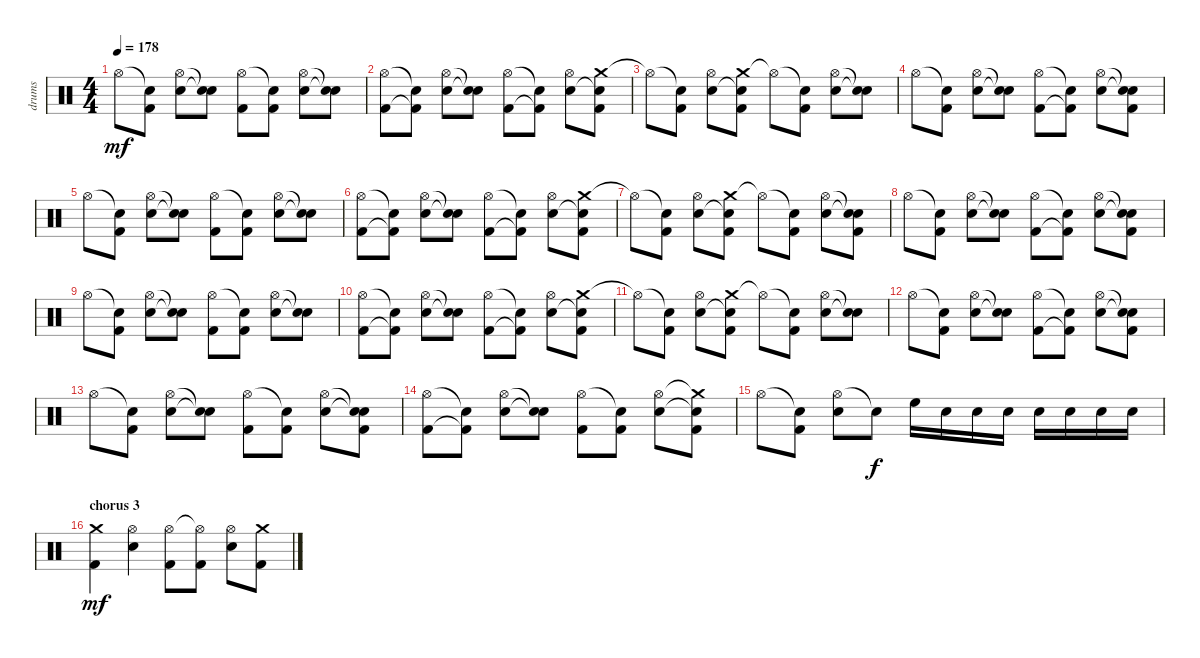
\track ("drums" "drums") {instrument percussion}
\staff {score}
\articulation defaults
\ts (4 4)
\tempo 178
\clef neutral
\ks aminor "Hi-Hat (open)".8{dy mf}
("Snare (hit)"{t} "Kick (hit) 2").8 ("Hi-Hat (open)" "Snare (hit) 2").8 ("Snare (hit)"{t} "Snare (hit)"{t}).8 ("Hi-Hat (open)" "Kick (hit) 2").8 ("Snare (hit)"{t} "Kick (hit) 2").8 ("Hi-Hat (open)" "Snare (hit) 2").8 ("Snare (hit)"{t} "Snare (hit)"{t}).8 |
("Hi-Hat (open)" "Kick (hit) 2").8 ("Snare (hit)"{t} "Kick (hit) 2"{t}).8 ("Hi-Hat (open)" "Snare (hit) 2").8 ("Snare (hit)"{t} "Snare (hit)"{t}).8 ("Hi-Hat (open)" "Kick (hit) 2").8 ("Snare (hit)"{t} "Kick (hit) 2"{t}).8 ("Hi-Hat (open)" "Snare (hit) 2").8 ("Crash medium (hit)" "Snare (hit)"{t} "Kick (hit) 2").8 |
"Hi-Hat (open)"{t}.8 ("Snare (hit)"{t} "Kick (hit) 2").8 ("Hi-Hat (open)" "Snare (hit) 2").8 ("Crash medium (hit)" "Snare (hit)"{t} "Kick (hit) 2").8 "Hi-Hat (open)"{t}.8 ("Snare (hit)"{t} "Kick (hit) 2").8 ("Hi-Hat (open)" "Snare (hit) 2").8 ("Snare (hit)"{t} "Snare (hit)"{t}).8 |
"Hi-Hat (open)".8 ("Snare (hit)"{t} "Kick (hit) 2").8 ("Hi-Hat (open)" "Snare (hit) 2").8 ("Snare (hit)"{t} "Snare (hit)"{t}).8 ("Hi-Hat (open)" "Kick (hit) 2").8 ("Snare (hit)"{t} "Kick (hit) 2"{t}).8 ("Hi-Hat (open)" "Snare (hit) 2").8 ("Snare (hit)"{t} "Snare (hit)"{t} "Kick (hit) 2").8 |
"Hi-Hat (open)".8 ("Snare (hit)"{t} "Kick (hit) 2").8 ("Hi-Hat (open)" "Snare (hit) 2").8 ("Snare (hit)"{t} "Snare (hit)"{t}).8 ("Hi-Hat (open)" "Kick (hit) 2").8 ("Snare (hit)"{t} "Kick (hit) 2").8 ("Hi-Hat (open)" "Snare (hit) 2").8 ("Snare (hit)"{t} "Snare (hit)"{t}).8 |
("Hi-Hat (open)" "Kick (hit) 2").8 ("Snare (hit)"{t} "Kick (hit) 2"{t}).8 ("Hi-Hat (open)" "Snare (hit) 2").8 ("Snare (hit)"{t} "Snare (hit)"{t}).8 ("Hi-Hat (open)" "Kick (hit) 2").8 ("Snare (hit)"{t} "Kick (hit) 2"{t}).8 ("Hi-Hat (open)" "Snare (hit) 2").8 ("Crash medium (hit)" "Snare (hit)"{t} "Kick (hit) 2").8 |
"Hi-Hat (open)"{t}.8 ("Snare (hit)"{t} "Kick (hit) 2").8 ("Hi-Hat (open)" "Snare (hit) 2").8 ("Crash medium (hit)" "Snare (hit)"{t} "Kick (hit) 2").8 "Hi-Hat (open)"{t}.8 ("Snare (hit)"{t} "Kick (hit) 2").8 ("Hi-Hat (open)" "Snare (hit) 2").8 ("Snare (hit)"{t} "Snare (hit)"{t} "Kick (hit) 2").8 |
"Hi-Hat (open)".8 ("Snare (hit)"{t} "Kick (hit) 2").8 ("Hi-Hat (open)" "Snare (hit) 2").8 ("Snare (hit)"{t} "Snare (hit)"{t}).8 ("Hi-Hat (open)" "Kick (hit) 2").8 ("Snare (hit)"{t} "Kick (hit) 2"{t}).8 ("Hi-Hat (open)" "Snare (hit) 2").8 ("Snare (hit)"{t} "Snare (hit)"{t} "Kick (hit) 2").8 |
"Hi-Hat (open)".8 ("Snare (hit)"{t} "Kick (hit) 2").8 ("Hi-Hat (open)" "Snare (hit) 2").8 ("Snare (hit)"{t} "Snare (hit)"{t}).8 ("Hi-Hat (open)" "Kick (hit) 2").8 ("Snare (hit)"{t} "Kick (hit) 2").8 ("Hi-Hat (open)" "Snare (hit) 2").8 ("Snare (hit)"{t} "Snare (hit)"{t}).8 |
("Hi-Hat (open)" "Kick (hit) 2").8 ("Snare (hit)"{t} "Kick (hit) 2"{t}).8 ("Hi-Hat (open)" "Snare (hit) 2").8 ("Snare (hit)"{t} "Snare (hit)"{t}).8 ("Hi-Hat (open)" "Kick (hit) 2").8 ("Snare (hit)"{t} "Kick (hit) 2"{t}).8 ("Hi-Hat (open)" "Snare (hit) 2").8 ("Crash medium (hit)" "Snare (hit)"{t} "Kick (hit) 2").8 |
"Hi-Hat (open)"{t}.8 ("Snare (hit)"{t} "Kick (hit) 2").8 ("Hi-Hat (open)" "Snare (hit) 2").8 ("Crash medium (hit)" "Snare (hit)"{t} "Kick (hit) 2").8 "Hi-Hat (open)"{t}.8 ("Snare (hit)"{t} "Kick (hit) 2").8 ("Hi-Hat (open)" "Snare (hit) 2").8 ("Snare (hit)"{t} "Snare (hit)"{t}).8 |
"Hi-Hat (open)".8 ("Snare (hit)"{t} "Kick (hit) 2").8 ("Hi-Hat (open)" "Snare (hit) 2").8 ("Snare (hit)"{t} "Snare (hit)"{t}).8 ("Hi-Hat (open)" "Kick (hit) 2").8 ("Snare (hit)"{t} "Kick (hit) 2"{t}).8 ("Hi-Hat (open)" "Snare (hit) 2").8 ("Snare (hit)"{t} "Snare (hit)"{t} "Kick (hit) 2").8 |
"Hi-Hat (open)".8 ("Snare (hit)"{t} "Kick (hit) 2").8 ("Hi-Hat (open)" "Snare (hit) 2").8 ("Snare (hit)"{t} "Snare (hit)"{t}).8 ("Hi-Hat (open)" "Kick (hit) 2").8 ("Snare (hit)"{t} "Kick (hit) 2").8 ("Hi-Hat (open)" "Snare (hit) 2").8 ("Snare (hit)"{t} "Snare (hit)"{t} "Kick (hit) 2").8 |
("Hi-Hat (open)" "Kick (hit) 2").8 ("Snare (hit)"{t} "Kick (hit) 2"{t}).8 ("Hi-Hat (open)" "Snare (hit) 2").8 ("Snare (hit)"{t} "Snare (hit)"{t}).8 ("Hi-Hat (open)" "Kick (hit) 2").8 ("Snare (hit)"{t} "Kick (hit) 2").8 ("Hi-Hat (open)" "Snare (hit) 2").8 ("Crash medium (hit)"{t} "Snare (hit)"{t} "Kick (hit) 2").8 |
"Hi-Hat (open)".8 ("Snare (hit)"{t} "Kick (hit) 2").8 ("Hi-Hat (open)" "Snare (hit) 2").8 "Snare (hit)"{t}.8{dy f} "High Floor Tom (hit)".16 "Snare (hit) 2".16 "Snare (hit) 2".16 "Snare (hit) 2".16 "Snare (hit) 2".16 "Snare (hit) 2".16 "Snare (hit) 2".16 "Snare (hit) 2".16 |
\section ("" "chorus 3")
("Crash medium (hit)" "Kick (hit) 2").4{dy mf} ("Hi-Hat (open)" "Snare (hit) 2").4 ("Hi-Hat (open)" "Kick (hit) 2").8 ("Hi-Hat (open)"{t} "Kick (hit) 2").8 ("Hi-Hat (open)" "Snare (hit) 2").8 ("Crash medium (hit)" "Kick (hit) 2").8
